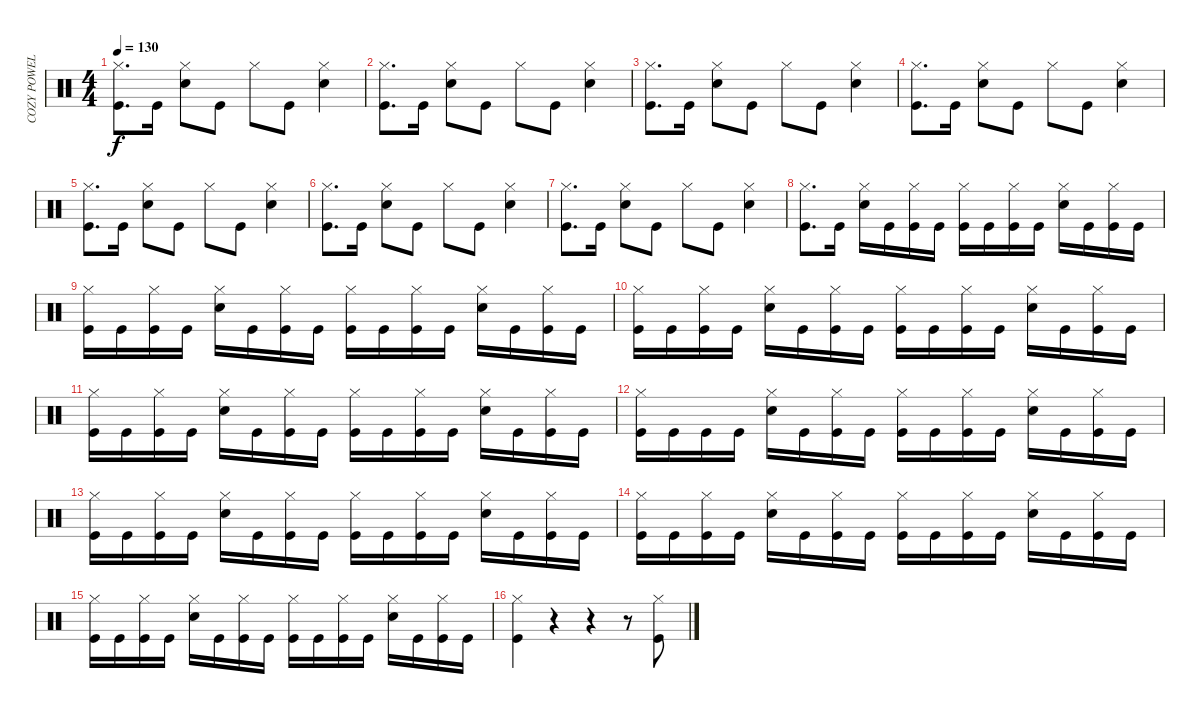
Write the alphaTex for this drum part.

\track ("COZY POWELL" "COZY POWEL") {instrument percussion}
\staff {score}
\articulation defaults
\ts (4 4)
\tempo 130
\clef neutral
\ks c
("Hi-Hat (closed)" "Kick (hit)").8{d dy f} "Kick (hit)".16 ("Hi-Hat (closed)" "Snare (hit) 2").8 "Kick (hit)".8 "Hi-Hat (closed)".8 "Kick (hit)".8 ("Hi-Hat (closed)" "Snare (hit) 2").4 |
("Hi-Hat (closed)" "Kick (hit)").8{d} "Kick (hit)".16 ("Hi-Hat (closed)" "Snare (hit) 2").8 "Kick (hit)".8 "Hi-Hat (closed)".8 "Kick (hit)".8 ("Hi-Hat (closed)" "Snare (hit) 2").4 |
("Hi-Hat (closed)" "Kick (hit)").8{d} "Kick (hit)".16 ("Hi-Hat (closed)" "Snare (hit) 2").8 "Kick (hit)".8 "Hi-Hat (closed)".8 "Kick (hit)".8 ("Hi-Hat (closed)" "Snare (hit) 2").4 |
("Hi-Hat (closed)" "Kick (hit)").8{d} "Kick (hit)".16 ("Hi-Hat (closed)" "Snare (hit) 2").8 "Kick (hit)".8 "Hi-Hat (closed)".8 "Kick (hit)".8 ("Hi-Hat (closed)" "Snare (hit) 2").4 |
("Hi-Hat (closed)" "Kick (hit)").8{d} "Kick (hit)".16 ("Hi-Hat (closed)" "Snare (hit) 2").8 "Kick (hit)".8 "Hi-Hat (closed)".8 "Kick (hit)".8 ("Hi-Hat (closed)" "Snare (hit) 2").4 |
("Hi-Hat (closed)" "Kick (hit)").8{d} "Kick (hit)".16 ("Hi-Hat (closed)" "Snare (hit) 2").8 "Kick (hit)".8 "Hi-Hat (closed)".8 "Kick (hit)".8 ("Hi-Hat (closed)" "Snare (hit) 2").4 |
("Hi-Hat (closed)" "Kick (hit)").8{d} "Kick (hit)".16 ("Hi-Hat (closed)" "Snare (hit) 2").8 "Kick (hit)".8 "Hi-Hat (closed)".8 "Kick (hit)".8 ("Hi-Hat (closed)" "Snare (hit) 2").4 |
("Hi-Hat (closed)" "Kick (hit)").8{d} "Kick (hit)".16 ("Hi-Hat (closed)" "Snare (hit) 2").16 "Kick (hit)".16 ("Hi-Hat (closed)" "Kick (hit)").16 "Kick (hit)".16 ("Hi-Hat (closed)" "Kick (hit)").16 "Kick (hit)".16 ("Hi-Hat (closed)" "Kick (hit)").16 "Kick (hit)".16 ("Hi-Hat (closed)" "Snare (hit) 2").16 "Kick (hit)".16 ("Hi-Hat (closed)" "Kick (hit)").16 "Kick (hit)".16 |
("Hi-Hat (closed)" "Kick (hit)").16 "Kick (hit)".16 ("Hi-Hat (closed)" "Kick (hit)").16 "Kick (hit)".16 ("Hi-Hat (closed)" "Snare (hit) 2").16 "Kick (hit)".16 ("Hi-Hat (closed)" "Kick (hit)").16 "Kick (hit)".16 ("Hi-Hat (closed)" "Kick (hit)").16 "Kick (hit)".16 ("Hi-Hat (closed)" "Kick (hit)").16 "Kick (hit)".16 ("Hi-Hat (closed)" "Snare (hit) 2").16 "Kick (hit)".16 ("Hi-Hat (closed)" "Kick (hit)").16 "Kick (hit)".16 |
("Hi-Hat (closed)" "Kick (hit)").16 "Kick (hit)".16 ("Hi-Hat (closed)" "Kick (hit)").16 "Kick (hit)".16 ("Hi-Hat (closed)" "Snare (hit) 2").16 "Kick (hit)".16 ("Hi-Hat (closed)" "Kick (hit)").16 "Kick (hit)".16 ("Hi-Hat (closed)" "Kick (hit)").16 "Kick (hit)".16 ("Hi-Hat (closed)" "Kick (hit)").16 "Kick (hit)".16 ("Hi-Hat (closed)" "Snare (hit) 2").16 "Kick (hit)".16 ("Hi-Hat (closed)" "Kick (hit)").16 "Kick (hit)".16 |
("Hi-Hat (closed)" "Kick (hit)").16 "Kick (hit)".16 ("Hi-Hat (closed)" "Kick (hit)").16 "Kick (hit)".16 ("Hi-Hat (closed)" "Snare (hit) 2").16 "Kick (hit)".16 ("Hi-Hat (closed)" "Kick (hit)").16 "Kick (hit)".16 ("Hi-Hat (closed)" "Kick (hit)").16 "Kick (hit)".16 ("Hi-Hat (closed)" "Kick (hit)").16 "Kick (hit)".16 ("Hi-Hat (closed)" "Snare (hit) 2").16 "Kick (hit)".16 ("Hi-Hat (closed)" "Kick (hit)").16 "Kick (hit)".16 |
("Hi-Hat (closed)" "Kick (hit)").16 "Kick (hit)".16 "Kick (hit)".16 "Kick (hit)".16 ("Hi-Hat (closed)" "Snare (hit) 2").16 "Kick (hit)".16 ("Hi-Hat (closed)" "Kick (hit)").16 "Kick (hit)".16 ("Hi-Hat (closed)" "Kick (hit)").16 "Kick (hit)".16 ("Hi-Hat (closed)" "Kick (hit)").16 "Kick (hit)".16 ("Hi-Hat (closed)" "Snare (hit) 2").16 "Kick (hit)".16 ("Hi-Hat (closed)" "Kick (hit)").16 "Kick (hit)".16 |
("Hi-Hat (closed)" "Kick (hit)").16 "Kick (hit)".16 ("Hi-Hat (closed)" "Kick (hit)").16 "Kick (hit)".16 ("Hi-Hat (closed)" "Snare (hit) 2").16 "Kick (hit)".16 ("Hi-Hat (closed)" "Kick (hit)").16 "Kick (hit)".16 ("Hi-Hat (closed)" "Kick (hit)").16 "Kick (hit)".16 ("Hi-Hat (closed)" "Kick (hit)").16 "Kick (hit)".16 ("Hi-Hat (closed)" "Snare (hit) 2").16 "Kick (hit)".16 ("Hi-Hat (closed)" "Kick (hit)").16 "Kick (hit)".16 |
("Hi-Hat (closed)" "Kick (hit)").16 "Kick (hit)".16 ("Hi-Hat (closed)" "Kick (hit)").16 "Kick (hit)".16 ("Hi-Hat (closed)" "Snare (hit) 2").16 "Kick (hit)".16 ("Hi-Hat (closed)" "Kick (hit)").16 "Kick (hit)".16 ("Hi-Hat (closed)" "Kick (hit)").16 "Kick (hit)".16 ("Hi-Hat (closed)" "Kick (hit)").16 "Kick (hit)".16 ("Hi-Hat (closed)" "Snare (hit) 2").16 "Kick (hit)".16 ("Hi-Hat (closed)" "Kick (hit)").16 "Kick (hit)".16 |
("Hi-Hat (closed)" "Kick (hit)").16 "Kick (hit)".16 ("Hi-Hat (closed)" "Kick (hit)").16 "Kick (hit)".16 ("Hi-Hat (closed)" "Snare (hit) 2").16 "Kick (hit)".16 ("Hi-Hat (closed)" "Kick (hit)").16 "Kick (hit)".16 ("Hi-Hat (closed)" "Kick (hit)").16 "Kick (hit)".16 ("Hi-Hat (closed)" "Kick (hit)").16 "Kick (hit)".16 ("Hi-Hat (closed)" "Snare (hit) 2").16 "Kick (hit)".16 ("Hi-Hat (closed)" "Kick (hit)").16 "Kick (hit)".16 |
("Hi-Hat (closed)" "Kick (hit)").4 r.4 r.4 r.8 ("Hi-Hat (closed)" "Kick (hit)").8
